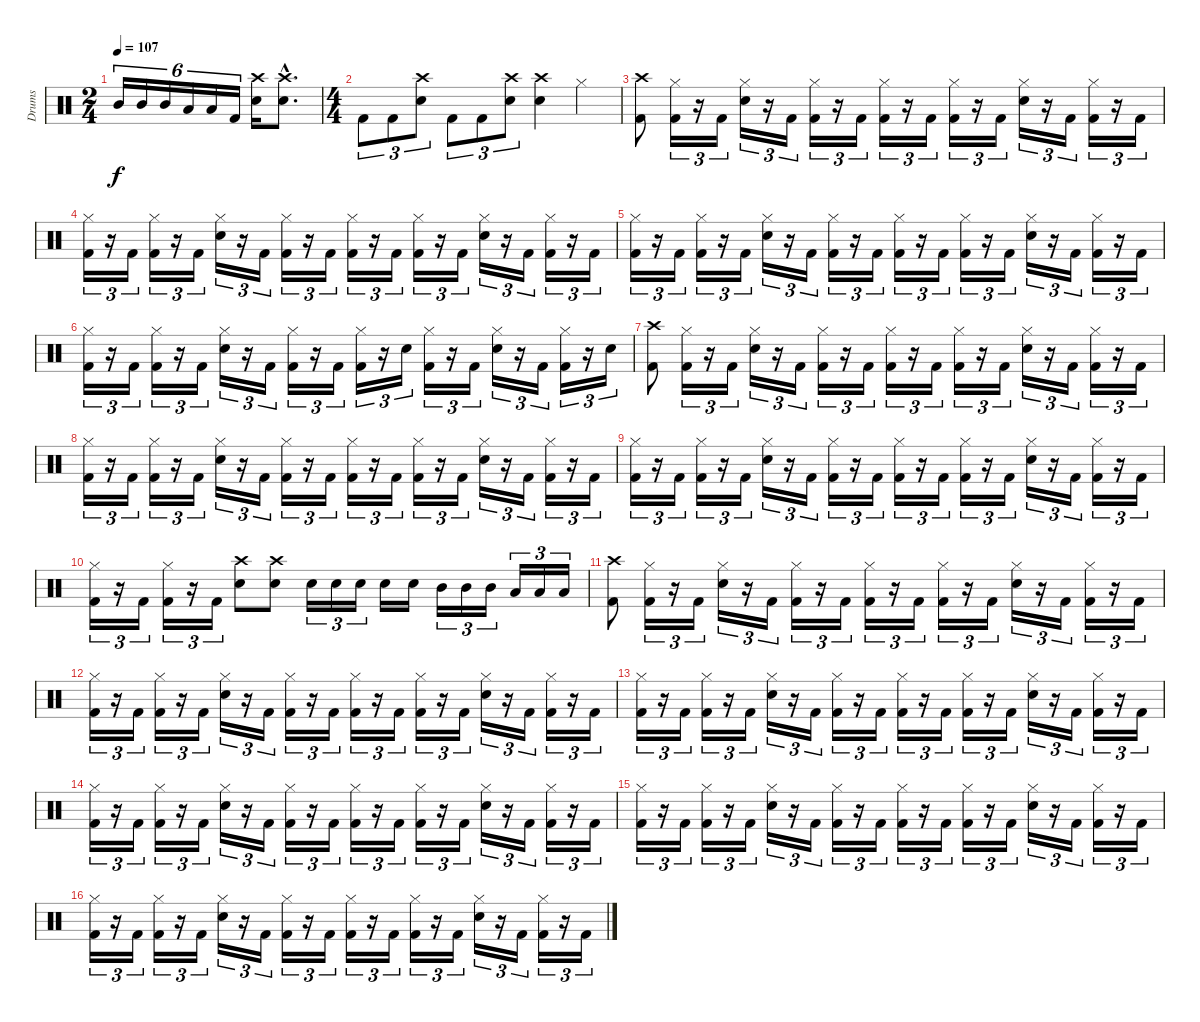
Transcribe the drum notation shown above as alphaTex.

\track ("Drums" "Drums") {instrument percussion}
\staff {score}
\articulation defaults
\ts (2 4)
\tempo 107
\clef neutral
\ks c "Mid Tom (hit)".16{tu (6 4) dy f} "Mid Tom (hit)".16{tu (6 4)} "Mid Tom (hit)".16{tu (6 4)} "Low Tom (hit)".16{tu (6 4)} "Low Tom (hit)".16{tu (6 4)} "Kick (hit) 2".16{tu (6 4)}
("Crash high (hit)" "Electric Snare (hit)").16 ("Crash high (hit)"{hac} "Electric Snare (hit)"{hac}).8{d} |
\ts (4 4)
"Kick (hit) 2".8{tu (3 2)} "Kick (hit) 2".8{tu (3 2)} ("Crash high (hit)" "Electric Snare (hit)").8{tu (3 2)} "Kick (hit) 2".8{tu (3 2)} "Kick (hit) 2".8{tu (3 2)} ("Crash high (hit)" "Electric Snare (hit)").8{tu (3 2)} ("Crash high (hit)" "Electric Snare (hit)").4 "Hi-Hat (closed)".4 |
("Crash high (hit)" "Kick (hit) 2").8{balance 8} ("Hi-Hat (closed)" "Kick (hit) 2").16{tu (3 2)} r.16{tu (3 2)} "Kick (hit) 2".16{tu (3 2)} ("Hi-Hat (closed)" "Electric Snare (hit)").16{tu (3 2)} r.16{tu (3 2)} "Kick (hit) 2".16{tu (3 2)} ("Hi-Hat (closed)" "Kick (hit) 2").16{tu (3 2)} r.16{tu (3 2)} "Kick (hit) 2".16{tu (3 2)} ("Hi-Hat (closed)" "Kick (hit) 2").16{tu (3 2)} r.16{tu (3 2)} "Kick (hit) 2".16{tu (3 2)} ("Hi-Hat (closed)" "Kick (hit) 2").16{tu (3 2)} r.16{tu (3 2)} "Kick (hit) 2".16{tu (3 2)} ("Hi-Hat (closed)" "Electric Snare (hit)").16{tu (3 2)} r.16{tu (3 2)} "Kick (hit) 2".16{tu (3 2)} ("Hi-Hat (closed)" "Kick (hit) 2").16{tu (3 2)} r.16{tu (3 2)} "Kick (hit) 2".16{tu (3 2)} |
("Hi-Hat (closed)" "Kick (hit) 2").16{tu (3 2)} r.16{tu (3 2)} "Kick (hit) 2".16{tu (3 2)} ("Hi-Hat (closed)" "Kick (hit) 2").16{tu (3 2)} r.16{tu (3 2)} "Kick (hit) 2".16{tu (3 2)} ("Hi-Hat (closed)" "Electric Snare (hit)").16{tu (3 2)} r.16{tu (3 2)} "Kick (hit) 2".16{tu (3 2)} ("Hi-Hat (closed)" "Kick (hit) 2").16{tu (3 2)} r.16{tu (3 2)} "Kick (hit) 2".16{tu (3 2)} ("Hi-Hat (closed)" "Kick (hit) 2").16{tu (3 2)} r.16{tu (3 2)} "Kick (hit) 2".16{tu (3 2)} ("Hi-Hat (closed)" "Kick (hit) 2").16{tu (3 2)} r.16{tu (3 2)} "Kick (hit) 2".16{tu (3 2)} ("Hi-Hat (closed)" "Electric Snare (hit)").16{tu (3 2)} r.16{tu (3 2)} "Kick (hit) 2".16{tu (3 2)} ("Hi-Hat (closed)" "Kick (hit) 2").16{tu (3 2)} r.16{tu (3 2)} "Kick (hit) 2".16{tu (3 2)} |
("Hi-Hat (closed)" "Kick (hit) 2").16{tu (3 2)} r.16{tu (3 2)} "Kick (hit) 2".16{tu (3 2)} ("Hi-Hat (closed)" "Kick (hit) 2").16{tu (3 2)} r.16{tu (3 2)} "Kick (hit) 2".16{tu (3 2)} ("Hi-Hat (closed)" "Electric Snare (hit)").16{tu (3 2)} r.16{tu (3 2)} "Kick (hit) 2".16{tu (3 2)} ("Hi-Hat (closed)" "Kick (hit) 2").16{tu (3 2)} r.16{tu (3 2)} "Kick (hit) 2".16{tu (3 2)} ("Hi-Hat (closed)" "Kick (hit) 2").16{tu (3 2)} r.16{tu (3 2)} "Kick (hit) 2".16{tu (3 2)} ("Hi-Hat (closed)" "Kick (hit) 2").16{tu (3 2)} r.16{tu (3 2)} "Kick (hit) 2".16{tu (3 2)} ("Hi-Hat (closed)" "Electric Snare (hit)").16{tu (3 2)} r.16{tu (3 2)} "Kick (hit) 2".16{tu (3 2)} ("Hi-Hat (closed)" "Kick (hit) 2").16{tu (3 2)} r.16{tu (3 2)} "Kick (hit) 2".16{tu (3 2)} |
("Hi-Hat (closed)" "Kick (hit) 2").16{tu (3 2)} r.16{tu (3 2)} "Kick (hit) 2".16{tu (3 2)} ("Hi-Hat (closed)" "Kick (hit) 2").16{tu (3 2)} r.16{tu (3 2)} "Kick (hit) 2".16{tu (3 2)} ("Hi-Hat (closed)" "Electric Snare (hit)").16{tu (3 2)} r.16{tu (3 2)} "Kick (hit) 2".16{tu (3 2)} ("Hi-Hat (closed)" "Kick (hit) 2").16{tu (3 2)} r.16{tu (3 2)} "Kick (hit) 2".16{tu (3 2)} ("Hi-Hat (closed)" "Kick (hit) 2").16{tu (3 2)} r.16{tu (3 2)} "Electric Snare (hit)".16{tu (3 2)} ("Hi-Hat (closed)" "Kick (hit) 2").16{tu (3 2)} r.16{tu (3 2)} "Kick (hit) 2".16{tu (3 2)} ("Hi-Hat (closed)" "Electric Snare (hit)").16{tu (3 2)} r.16{tu (3 2)} "Kick (hit) 2".16{tu (3 2)} ("Hi-Hat (closed)" "Kick (hit) 2").16{tu (3 2)} r.16{tu (3 2)} "Electric Snare (hit)".16{tu (3 2)} |
("Crash high (hit)" "Kick (hit) 2").8{balance 8} ("Hi-Hat (closed)" "Kick (hit) 2").16{tu (3 2)} r.16{tu (3 2)} "Kick (hit) 2".16{tu (3 2)} ("Hi-Hat (closed)" "Electric Snare (hit)").16{tu (3 2)} r.16{tu (3 2)} "Kick (hit) 2".16{tu (3 2)} ("Hi-Hat (closed)" "Kick (hit) 2").16{tu (3 2)} r.16{tu (3 2)} "Kick (hit) 2".16{tu (3 2)} ("Hi-Hat (closed)" "Kick (hit) 2").16{tu (3 2)} r.16{tu (3 2)} "Kick (hit) 2".16{tu (3 2)} ("Hi-Hat (closed)" "Kick (hit) 2").16{tu (3 2)} r.16{tu (3 2)} "Kick (hit) 2".16{tu (3 2)} ("Hi-Hat (closed)" "Electric Snare (hit)").16{tu (3 2)} r.16{tu (3 2)} "Kick (hit) 2".16{tu (3 2)} ("Hi-Hat (closed)" "Kick (hit) 2").16{tu (3 2)} r.16{tu (3 2)} "Kick (hit) 2".16{tu (3 2)} |
("Hi-Hat (closed)" "Kick (hit) 2").16{tu (3 2)} r.16{tu (3 2)} "Kick (hit) 2".16{tu (3 2)} ("Hi-Hat (closed)" "Kick (hit) 2").16{tu (3 2)} r.16{tu (3 2)} "Kick (hit) 2".16{tu (3 2)} ("Hi-Hat (closed)" "Electric Snare (hit)").16{tu (3 2)} r.16{tu (3 2)} "Kick (hit) 2".16{tu (3 2)} ("Hi-Hat (closed)" "Kick (hit) 2").16{tu (3 2)} r.16{tu (3 2)} "Kick (hit) 2".16{tu (3 2)} ("Hi-Hat (closed)" "Kick (hit) 2").16{tu (3 2)} r.16{tu (3 2)} "Kick (hit) 2".16{tu (3 2)} ("Hi-Hat (closed)" "Kick (hit) 2").16{tu (3 2)} r.16{tu (3 2)} "Kick (hit) 2".16{tu (3 2)} ("Hi-Hat (closed)" "Electric Snare (hit)").16{tu (3 2)} r.16{tu (3 2)} "Kick (hit) 2".16{tu (3 2)} ("Hi-Hat (closed)" "Kick (hit) 2").16{tu (3 2)} r.16{tu (3 2)} "Kick (hit) 2".16{tu (3 2)} |
("Hi-Hat (closed)" "Kick (hit) 2").16{tu (3 2)} r.16{tu (3 2)} "Kick (hit) 2".16{tu (3 2)} ("Hi-Hat (closed)" "Kick (hit) 2").16{tu (3 2)} r.16{tu (3 2)} "Kick (hit) 2".16{tu (3 2)} ("Hi-Hat (closed)" "Electric Snare (hit)").16{tu (3 2)} r.16{tu (3 2)} "Kick (hit) 2".16{tu (3 2)} ("Hi-Hat (closed)" "Kick (hit) 2").16{tu (3 2)} r.16{tu (3 2)} "Kick (hit) 2".16{tu (3 2)} ("Hi-Hat (closed)" "Kick (hit) 2").16{tu (3 2)} r.16{tu (3 2)} "Kick (hit) 2".16{tu (3 2)} ("Hi-Hat (closed)" "Kick (hit) 2").16{tu (3 2)} r.16{tu (3 2)} "Kick (hit) 2".16{tu (3 2)} ("Hi-Hat (closed)" "Electric Snare (hit)").16{tu (3 2)} r.16{tu (3 2)} "Kick (hit) 2".16{tu (3 2)} ("Hi-Hat (closed)" "Kick (hit) 2").16{tu (3 2)} r.16{tu (3 2)} "Kick (hit) 2".16{tu (3 2)} |
("Hi-Hat (closed)" "Kick (hit) 2").16{tu (3 2)} r.16{tu (3 2)} "Kick (hit) 2".16{tu (3 2)} ("Hi-Hat (closed)" "Kick (hit) 2").16{tu (3 2)} r.16{tu (3 2)} "Kick (hit) 2".16{tu (3 2)} ("Crash high (hit)" "Electric Snare (hit)").8 ("Crash high (hit)" "Electric Snare (hit)").8 "Electric Snare (hit)".16{tu (3 2)} "Electric Snare (hit)".16{tu (3 2)} "Electric Snare (hit)".16{tu (3 2)} "Electric Snare (hit)".16 "Electric Snare (hit)".16 "Mid Tom (hit)".16{tu (3 2)} "Mid Tom (hit)".16{tu (3 2)} "Mid Tom (hit)".16{tu (3 2)} "Low Tom (hit)".16{tu (3 2)} "Low Tom (hit)".16{tu (3 2)} "Low Tom (hit)".16{tu (3 2)} |
("Crash high (hit)" "Kick (hit) 2").8{balance 8} ("Hi-Hat (closed)" "Kick (hit) 2").16{tu (3 2)} r.16{tu (3 2)} "Kick (hit) 2".16{tu (3 2)} ("Hi-Hat (closed)" "Electric Snare (hit)").16{tu (3 2)} r.16{tu (3 2)} "Kick (hit) 2".16{tu (3 2)} ("Hi-Hat (closed)" "Kick (hit) 2").16{tu (3 2)} r.16{tu (3 2)} "Kick (hit) 2".16{tu (3 2)} ("Hi-Hat (closed)" "Kick (hit) 2").16{tu (3 2)} r.16{tu (3 2)} "Kick (hit) 2".16{tu (3 2)} ("Hi-Hat (closed)" "Kick (hit) 2").16{tu (3 2)} r.16{tu (3 2)} "Kick (hit) 2".16{tu (3 2)} ("Hi-Hat (closed)" "Electric Snare (hit)").16{tu (3 2)} r.16{tu (3 2)} "Kick (hit) 2".16{tu (3 2)} ("Hi-Hat (closed)" "Kick (hit) 2").16{tu (3 2)} r.16{tu (3 2)} "Kick (hit) 2".16{tu (3 2)} |
("Hi-Hat (closed)" "Kick (hit) 2").16{tu (3 2)} r.16{tu (3 2)} "Kick (hit) 2".16{tu (3 2)} ("Hi-Hat (closed)" "Kick (hit) 2").16{tu (3 2)} r.16{tu (3 2)} "Kick (hit) 2".16{tu (3 2)} ("Hi-Hat (closed)" "Electric Snare (hit)").16{tu (3 2)} r.16{tu (3 2)} "Kick (hit) 2".16{tu (3 2)} ("Hi-Hat (closed)" "Kick (hit) 2").16{tu (3 2)} r.16{tu (3 2)} "Kick (hit) 2".16{tu (3 2)} ("Hi-Hat (closed)" "Kick (hit) 2").16{tu (3 2)} r.16{tu (3 2)} "Kick (hit) 2".16{tu (3 2)} ("Hi-Hat (closed)" "Kick (hit) 2").16{tu (3 2)} r.16{tu (3 2)} "Kick (hit) 2".16{tu (3 2)} ("Hi-Hat (closed)" "Electric Snare (hit)").16{tu (3 2)} r.16{tu (3 2)} "Kick (hit) 2".16{tu (3 2)} ("Hi-Hat (closed)" "Kick (hit) 2").16{tu (3 2)} r.16{tu (3 2)} "Kick (hit) 2".16{tu (3 2)} |
("Hi-Hat (closed)" "Kick (hit) 2").16{tu (3 2)} r.16{tu (3 2)} "Kick (hit) 2".16{tu (3 2)} ("Hi-Hat (closed)" "Kick (hit) 2").16{tu (3 2)} r.16{tu (3 2)} "Kick (hit) 2".16{tu (3 2)} ("Hi-Hat (closed)" "Electric Snare (hit)").16{tu (3 2)} r.16{tu (3 2)} "Kick (hit) 2".16{tu (3 2)} ("Hi-Hat (closed)" "Kick (hit) 2").16{tu (3 2)} r.16{tu (3 2)} "Kick (hit) 2".16{tu (3 2)} ("Hi-Hat (closed)" "Kick (hit) 2").16{tu (3 2)} r.16{tu (3 2)} "Kick (hit) 2".16{tu (3 2)} ("Hi-Hat (closed)" "Kick (hit) 2").16{tu (3 2)} r.16{tu (3 2)} "Kick (hit) 2".16{tu (3 2)} ("Hi-Hat (closed)" "Electric Snare (hit)").16{tu (3 2)} r.16{tu (3 2)} "Kick (hit) 2".16{tu (3 2)} ("Hi-Hat (closed)" "Kick (hit) 2").16{tu (3 2)} r.16{tu (3 2)} "Kick (hit) 2".16{tu (3 2)} |
("Hi-Hat (closed)" "Kick (hit) 2").16{tu (3 2)} r.16{tu (3 2)} "Kick (hit) 2".16{tu (3 2)} ("Hi-Hat (closed)" "Kick (hit) 2").16{tu (3 2)} r.16{tu (3 2)} "Kick (hit) 2".16{tu (3 2)} ("Hi-Hat (closed)" "Electric Snare (hit)").16{tu (3 2)} r.16{tu (3 2)} "Kick (hit) 2".16{tu (3 2)} ("Hi-Hat (closed)" "Kick (hit) 2").16{tu (3 2)} r.16{tu (3 2)} "Kick (hit) 2".16{tu (3 2)} ("Hi-Hat (closed)" "Kick (hit) 2").16{tu (3 2)} r.16{tu (3 2)} "Kick (hit) 2".16{tu (3 2)} ("Hi-Hat (closed)" "Kick (hit) 2").16{tu (3 2)} r.16{tu (3 2)} "Kick (hit) 2".16{tu (3 2)} ("Hi-Hat (closed)" "Electric Snare (hit)").16{tu (3 2)} r.16{tu (3 2)} "Kick (hit) 2".16{tu (3 2)} ("Hi-Hat (closed)" "Kick (hit) 2").16{tu (3 2)} r.16{tu (3 2)} "Kick (hit) 2".16{tu (3 2)} |
("Hi-Hat (closed)" "Kick (hit) 2").16{tu (3 2)} r.16{tu (3 2)} "Kick (hit) 2".16{tu (3 2)} ("Hi-Hat (closed)" "Kick (hit) 2").16{tu (3 2)} r.16{tu (3 2)} "Kick (hit) 2".16{tu (3 2)} ("Hi-Hat (closed)" "Electric Snare (hit)").16{tu (3 2)} r.16{tu (3 2)} "Kick (hit) 2".16{tu (3 2)} ("Hi-Hat (closed)" "Kick (hit) 2").16{tu (3 2)} r.16{tu (3 2)} "Kick (hit) 2".16{tu (3 2)} ("Hi-Hat (closed)" "Kick (hit) 2").16{tu (3 2)} r.16{tu (3 2)} "Kick (hit) 2".16{tu (3 2)} ("Hi-Hat (closed)" "Kick (hit) 2").16{tu (3 2)} r.16{tu (3 2)} "Kick (hit) 2".16{tu (3 2)} ("Hi-Hat (closed)" "Electric Snare (hit)").16{tu (3 2)} r.16{tu (3 2)} "Kick (hit) 2".16{tu (3 2)} ("Hi-Hat (closed)" "Kick (hit) 2").16{tu (3 2)} r.16{tu (3 2)} "Kick (hit) 2".16{tu (3 2)} |
("Hi-Hat (closed)" "Kick (hit) 2").16{tu (3 2)} r.16{tu (3 2)} "Kick (hit) 2".16{tu (3 2)} ("Hi-Hat (closed)" "Kick (hit) 2").16{tu (3 2)} r.16{tu (3 2)} "Kick (hit) 2".16{tu (3 2)} ("Hi-Hat (closed)" "Electric Snare (hit)").16{tu (3 2)} r.16{tu (3 2)} "Kick (hit) 2".16{tu (3 2)} ("Hi-Hat (closed)" "Kick (hit) 2").16{tu (3 2)} r.16{tu (3 2)} "Kick (hit) 2".16{tu (3 2)} ("Hi-Hat (closed)" "Kick (hit) 2").16{tu (3 2)} r.16{tu (3 2)} "Kick (hit) 2".16{tu (3 2)} ("Hi-Hat (closed)" "Kick (hit) 2").16{tu (3 2)} r.16{tu (3 2)} "Kick (hit) 2".16{tu (3 2)} ("Hi-Hat (closed)" "Electric Snare (hit)").16{tu (3 2)} r.16{tu (3 2)} "Kick (hit) 2".16{tu (3 2)} ("Hi-Hat (closed)" "Kick (hit) 2").16{tu (3 2)} r.16{tu (3 2)} "Kick (hit) 2".16{tu (3 2)}
